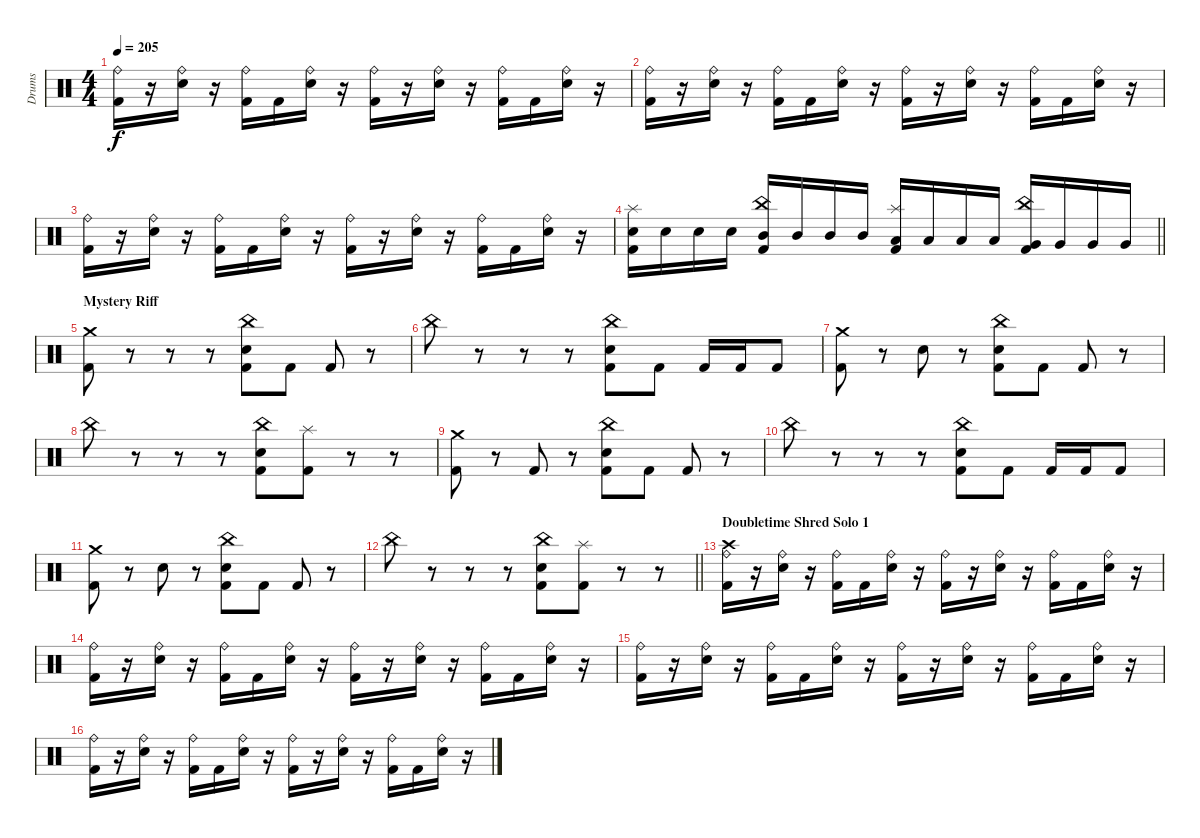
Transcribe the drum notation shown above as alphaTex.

\track ("Drums" "Drums") {instrument percussion}
\staff {score}
\articulation defaults
\ts (4 4)
\tempo 205
\clef neutral
\ks c
("Ride (bell)" "Kick (hit) 2").16{dy f} r.16 ("Ride (bell)" "Snare (hit) 2").16 r.16 ("Ride (bell)" "Kick (hit) 2").16 "Kick (hit) 2".16 ("Ride (bell)" "Snare (hit) 2").16 r.16 ("Ride (bell)" "Kick (hit) 2").16 r.16 ("Ride (bell)" "Snare (hit) 2").16 r.16 ("Ride (bell)" "Kick (hit) 2").16 "Kick (hit) 2".16 ("Ride (bell)" "Snare (hit) 2").16 r.16 |
("Ride (bell)" "Kick (hit) 2").16 r.16 ("Ride (bell)" "Snare (hit) 2").16 r.16 ("Ride (bell)" "Kick (hit) 2").16 "Kick (hit) 2".16 ("Ride (bell)" "Snare (hit) 2").16 r.16 ("Ride (bell)" "Kick (hit) 2").16 r.16 ("Ride (bell)" "Snare (hit) 2").16 r.16 ("Ride (bell)" "Kick (hit) 2").16 "Kick (hit) 2".16 ("Ride (bell)" "Snare (hit) 2").16 r.16 |
("Ride (bell)" "Kick (hit) 2").16 r.16 ("Ride (bell)" "Snare (hit) 2").16 r.16 ("Ride (bell)" "Kick (hit) 2").16 "Kick (hit) 2".16 ("Ride (bell)" "Snare (hit) 2").16 r.16 ("Ride (bell)" "Kick (hit) 2").16 r.16 ("Ride (bell)" "Snare (hit) 2").16 r.16 ("Ride (bell)" "Kick (hit) 2").16 "Kick (hit) 2".16 ("Ride (bell)" "Snare (hit) 2").16 r.16 |
\barLineRight lightlight
("Splash (hit)" "Snare (hit) 2" "Kick (hit) 2").16 "Snare (hit) 2".16 "Snare (hit) 2".16 "Snare (hit) 2".16 ("China (hit)" "Mid Tom (hit)" "Kick (hit) 2").16 "Mid Tom (hit)".16 "Mid Tom (hit)".16 "Mid Tom (hit)".16 ("Splash (hit)" "Low Tom (hit)" "Kick (hit) 2").16 "Low Tom (hit)".16 "Low Tom (hit)".16 "Low Tom (hit)".16 ("China (hit)" "Very Low Tom (hit)" "Kick (hit) 2").16 "Very Low Tom (hit)".16 "Very Low Tom (hit)".16 "Very Low Tom (hit)".16 |
\section ("" "Mystery Riff")
("Crash medium (hit)" "Kick (hit) 2").8 r.8 r.8 r.8 ("China (hit)" "Snare (hit) 2" "Kick (hit) 2").8 "Kick (hit) 2".8 "Kick (hit) 2".8 r.8 |
"China (hit)".8 r.8 r.8 r.8 ("China (hit)" "Snare (hit) 2" "Kick (hit) 2").8 "Kick (hit) 2".8 "Kick (hit) 2".16 "Kick (hit) 2".16 "Kick (hit) 2".8 |
("Crash medium (hit)" "Kick (hit) 2").8 r.8 "Snare (hit) 2".8 r.8 ("China (hit)" "Snare (hit) 2" "Kick (hit) 2").8 "Kick (hit) 2".8 "Kick (hit) 2".8 r.8 |
"China (hit)".8 r.8 r.8 r.8 ("China (hit)" "Snare (hit) 2" "Kick (hit) 2").8 ("Splash (hit)" "Kick (hit) 2").8 r.8 r.8 |
("Crash medium (hit)" "Kick (hit) 2").8 r.8 "Kick (hit) 2".8 r.8 ("China (hit)" "Snare (hit) 2" "Kick (hit) 2").8 "Kick (hit) 2".8 "Kick (hit) 2".8 r.8 |
"China (hit)".8 r.8 r.8 r.8 ("China (hit)" "Snare (hit) 2" "Kick (hit) 2").8 "Kick (hit) 2".8 "Kick (hit) 2".16 "Kick (hit) 2".16 "Kick (hit) 2".8 |
("Crash medium (hit)" "Kick (hit) 2").8 r.8 "Snare (hit) 2".8 r.8 ("China (hit)" "Snare (hit) 2" "Kick (hit) 2").8 "Kick (hit) 2".8 "Kick (hit) 2".8 r.8 |
\barLineRight lightlight "China (hit)".8
r.8 r.8 r.8 ("China (hit)" "Snare (hit) 2" "Kick (hit) 2").8 ("Splash (hit)" "Kick (hit) 2").8 r.8 r.8 |
\section ("" "Doubletime Shred Solo 1")
("Crash high (hit)" "Ride (bell)" "Kick (hit) 2").16 r.16 ("Ride (bell)" "Snare (hit) 2").16 r.16 ("Ride (bell)" "Kick (hit) 2").16 "Kick (hit) 2".16 ("Ride (bell)" "Snare (hit) 2").16 r.16 ("Ride (bell)" "Kick (hit) 2").16 r.16 ("Ride (bell)" "Snare (hit) 2").16 r.16 ("Ride (bell)" "Kick (hit) 2").16 "Kick (hit) 2".16 ("Ride (bell)" "Snare (hit) 2").16 r.16 |
("Ride (bell)" "Kick (hit) 2").16 r.16 ("Ride (bell)" "Snare (hit) 2").16 r.16 ("Ride (bell)" "Kick (hit) 2").16 "Kick (hit) 2".16 ("Ride (bell)" "Snare (hit) 2").16 r.16 ("Ride (bell)" "Kick (hit) 2").16 r.16 ("Ride (bell)" "Snare (hit) 2").16 r.16 ("Ride (bell)" "Kick (hit) 2").16 "Kick (hit) 2".16 ("Ride (bell)" "Snare (hit) 2").16 r.16 |
("Ride (bell)" "Kick (hit) 2").16 r.16 ("Ride (bell)" "Snare (hit) 2").16 r.16 ("Ride (bell)" "Kick (hit) 2").16 "Kick (hit) 2".16 ("Ride (bell)" "Snare (hit) 2").16 r.16 ("Ride (bell)" "Kick (hit) 2").16 r.16 ("Ride (bell)" "Snare (hit) 2").16 r.16 ("Ride (bell)" "Kick (hit) 2").16 "Kick (hit) 2".16 ("Ride (bell)" "Snare (hit) 2").16 r.16 |
("Ride (bell)" "Kick (hit) 2").16 r.16 ("Ride (bell)" "Snare (hit) 2").16 r.16 ("Ride (bell)" "Kick (hit) 2").16 "Kick (hit) 2".16 ("Ride (bell)" "Snare (hit) 2").16 r.16 ("Ride (bell)" "Kick (hit) 2").16 r.16 ("Ride (bell)" "Snare (hit) 2").16 r.16 ("Ride (bell)" "Kick (hit) 2").16 "Kick (hit) 2".16 ("Ride (bell)" "Snare (hit) 2").16 r.16
